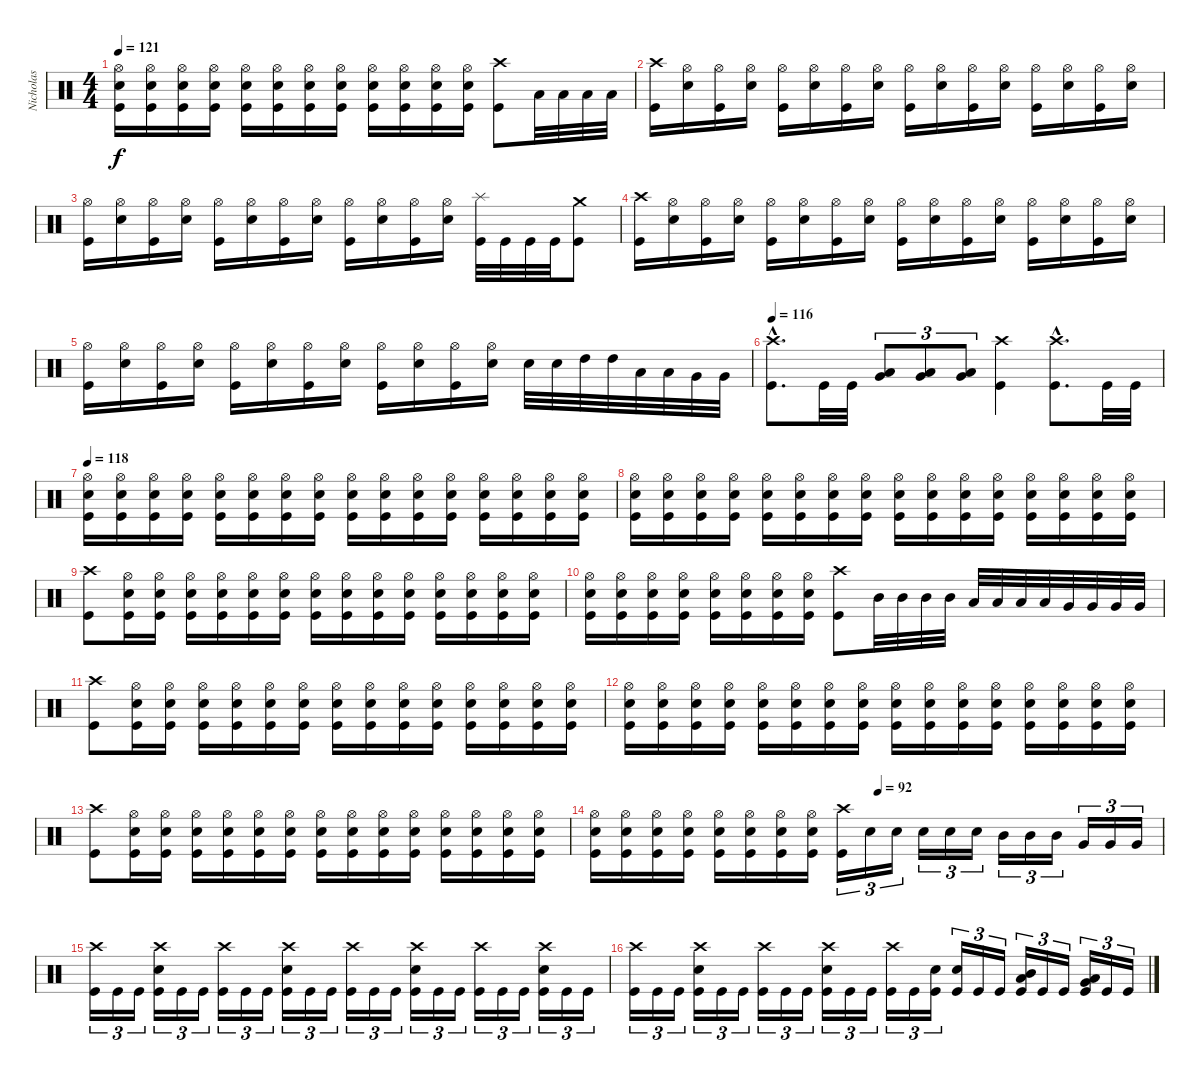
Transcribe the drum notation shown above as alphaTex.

\track ("Nicholas" "Nicholas") {instrument percussion}
\staff {score}
\articulation defaults
\ts (4 4)
\tempo 121
\clef neutral
\ks c
("Hi-Hat (open)" "Electric Snare (hit)" "Kick (hit)").16{dy f} ("Hi-Hat (open)" "Electric Snare (hit)" "Kick (hit)").16 ("Hi-Hat (open)" "Electric Snare (hit)" "Kick (hit)").16 ("Hi-Hat (open)" "Electric Snare (hit)" "Kick (hit)").16 ("Hi-Hat (open)" "Electric Snare (hit)" "Kick (hit)").16 ("Hi-Hat (open)" "Electric Snare (hit)" "Kick (hit)").16 ("Hi-Hat (open)" "Electric Snare (hit)" "Kick (hit)").16 ("Hi-Hat (open)" "Electric Snare (hit)" "Kick (hit)").16 ("Hi-Hat (open)" "Electric Snare (hit)" "Kick (hit)").16 ("Hi-Hat (open)" "Electric Snare (hit)" "Kick (hit)").16 ("Hi-Hat (open)" "Electric Snare (hit)" "Kick (hit)").16 ("Hi-Hat (open)" "Electric Snare (hit)" "Kick (hit)").16 ("Crash high (hit)" "Kick (hit)").8 "Low Tom (hit)".32 "Low Tom (hit)".32 "Low Tom (hit)".32 "Low Tom (hit)".32 |
("Crash high (hit)" "Kick (hit)").16 ("Hi-Hat (open)" "Electric Snare (hit)").16 ("Hi-Hat (open)" "Kick (hit)").16 ("Hi-Hat (open)" "Electric Snare (hit)").16 ("Hi-Hat (open)" "Kick (hit)").16 ("Hi-Hat (open)" "Electric Snare (hit)").16 ("Hi-Hat (open)" "Kick (hit)").16 ("Hi-Hat (open)" "Electric Snare (hit)").16 ("Hi-Hat (open)" "Kick (hit)").16 ("Hi-Hat (open)" "Electric Snare (hit)").16 ("Hi-Hat (open)" "Kick (hit)").16 ("Hi-Hat (open)" "Electric Snare (hit)").16 ("Hi-Hat (open)" "Kick (hit)").16 ("Hi-Hat (open)" "Electric Snare (hit)").16 ("Hi-Hat (open)" "Kick (hit)").16 ("Hi-Hat (open)" "Electric Snare (hit)").16 |
("Hi-Hat (open)" "Kick (hit)").16 ("Hi-Hat (open)" "Electric Snare (hit)").16 ("Hi-Hat (open)" "Kick (hit)").16 ("Hi-Hat (open)" "Electric Snare (hit)").16 ("Hi-Hat (open)" "Kick (hit)").16 ("Hi-Hat (open)" "Electric Snare (hit)").16 ("Hi-Hat (open)" "Kick (hit)").16 ("Hi-Hat (open)" "Electric Snare (hit)").16 ("Hi-Hat (open)" "Kick (hit)").16 ("Hi-Hat (open)" "Electric Snare (hit)").16 ("Hi-Hat (open)" "Kick (hit)").16 ("Hi-Hat (open)" "Electric Snare (hit)").16 ("Splash (hit)" "Kick (hit)").32 "Kick (hit)".32 "Kick (hit)".32 "Kick (hit)".32 ("Crash medium (hit)" "Kick (hit)").8 |
("Crash high (hit)" "Kick (hit)").16 ("Hi-Hat (open)" "Electric Snare (hit)").16 ("Hi-Hat (open)" "Kick (hit)").16 ("Hi-Hat (open)" "Electric Snare (hit)").16 ("Hi-Hat (open)" "Kick (hit)").16 ("Hi-Hat (open)" "Electric Snare (hit)").16 ("Hi-Hat (open)" "Kick (hit)").16 ("Hi-Hat (open)" "Electric Snare (hit)").16 ("Hi-Hat (open)" "Kick (hit)").16 ("Hi-Hat (open)" "Electric Snare (hit)").16 ("Hi-Hat (open)" "Kick (hit)").16 ("Hi-Hat (open)" "Electric Snare (hit)").16 ("Hi-Hat (open)" "Kick (hit)").16 ("Hi-Hat (open)" "Electric Snare (hit)").16 ("Hi-Hat (open)" "Kick (hit)").16 ("Hi-Hat (open)" "Electric Snare (hit)").16 |
("Hi-Hat (open)" "Kick (hit)").16 ("Hi-Hat (open)" "Electric Snare (hit)").16 ("Hi-Hat (open)" "Kick (hit)").16 ("Hi-Hat (open)" "Electric Snare (hit)").16 ("Hi-Hat (open)" "Kick (hit)").16 ("Hi-Hat (open)" "Electric Snare (hit)").16 ("Hi-Hat (open)" "Kick (hit)").16 ("Hi-Hat (open)" "Electric Snare (hit)").16 ("Hi-Hat (open)" "Kick (hit)").16 ("Hi-Hat (open)" "Electric Snare (hit)").16 ("Hi-Hat (open)" "Kick (hit)").16 ("Hi-Hat (open)" "Electric Snare (hit)").16 "Electric Snare (hit)".32 "Electric Snare (hit)".32 "High Tom (hit)".32 "High Tom (hit)".32 "Low Tom (hit)".32 "Low Tom (hit)".32 "Very Low Tom (hit)".32 "Very Low Tom (hit)".32 |
\tempo 116
("Crash high (hit)"{hac} "Kick (hit)"{hac}).8{d} "Kick (hit)".32 "Kick (hit)".32 ("Low Tom (hit)" "Very Low Tom (hit)").8{tu (3 2) bd 60} ("Low Tom (hit)" "Very Low Tom (hit)").8{tu (3 2) bd 60} ("Low Tom (hit)" "Very Low Tom (hit)").8{tu (3 2) bd 60} ("Crash high (hit)" "Kick (hit)").4 ("Crash high (hit)"{hac} "Kick (hit)"{hac}).8{d} "Kick (hit)".32 "Kick (hit)".32 |
\tempo 118
("Hi-Hat (open)" "Electric Snare (hit)" "Kick (hit)").16 ("Hi-Hat (open)" "Electric Snare (hit)" "Kick (hit)").16 ("Hi-Hat (open)" "Electric Snare (hit)" "Kick (hit)").16 ("Hi-Hat (open)" "Electric Snare (hit)" "Kick (hit)").16 ("Hi-Hat (open)" "Electric Snare (hit)" "Kick (hit)").16 ("Hi-Hat (open)" "Electric Snare (hit)" "Kick (hit)").16 ("Hi-Hat (open)" "Electric Snare (hit)" "Kick (hit)").16 ("Hi-Hat (open)" "Electric Snare (hit)" "Kick (hit)").16 ("Hi-Hat (open)" "Electric Snare (hit)" "Kick (hit)").16 ("Hi-Hat (open)" "Electric Snare (hit)" "Kick (hit)").16 ("Hi-Hat (open)" "Electric Snare (hit)" "Kick (hit)").16 ("Hi-Hat (open)" "Electric Snare (hit)" "Kick (hit)").16 ("Hi-Hat (open)" "Electric Snare (hit)" "Kick (hit)").16 ("Hi-Hat (open)" "Electric Snare (hit)" "Kick (hit)").16 ("Hi-Hat (open)" "Electric Snare (hit)" "Kick (hit)").16 ("Hi-Hat (open)" "Electric Snare (hit)" "Kick (hit)").16 |
("Hi-Hat (open)" "Electric Snare (hit)" "Kick (hit)").16 ("Hi-Hat (open)" "Electric Snare (hit)" "Kick (hit)").16 ("Hi-Hat (open)" "Electric Snare (hit)" "Kick (hit)").16 ("Hi-Hat (open)" "Electric Snare (hit)" "Kick (hit)").16 ("Hi-Hat (open)" "Electric Snare (hit)" "Kick (hit)").16 ("Hi-Hat (open)" "Electric Snare (hit)" "Kick (hit)").16 ("Hi-Hat (open)" "Electric Snare (hit)" "Kick (hit)").16 ("Hi-Hat (open)" "Electric Snare (hit)" "Kick (hit)").16 ("Hi-Hat (open)" "Electric Snare (hit)" "Kick (hit)").16 ("Hi-Hat (open)" "Electric Snare (hit)" "Kick (hit)").16 ("Hi-Hat (open)" "Electric Snare (hit)" "Kick (hit)").16 ("Hi-Hat (open)" "Electric Snare (hit)" "Kick (hit)").16 ("Hi-Hat (open)" "Electric Snare (hit)" "Kick (hit)").16 ("Hi-Hat (open)" "Electric Snare (hit)" "Kick (hit)").16 ("Hi-Hat (open)" "Electric Snare (hit)" "Kick (hit)").16 ("Hi-Hat (open)" "Electric Snare (hit)" "Kick (hit)").16 |
("Crash high (hit)" "Kick (hit)").8 ("Hi-Hat (open)" "Electric Snare (hit)" "Kick (hit)").16 ("Hi-Hat (open)" "Electric Snare (hit)" "Kick (hit)").16 ("Hi-Hat (open)" "Electric Snare (hit)" "Kick (hit)").16 ("Hi-Hat (open)" "Electric Snare (hit)" "Kick (hit)").16 ("Hi-Hat (open)" "Electric Snare (hit)" "Kick (hit)").16 ("Hi-Hat (open)" "Electric Snare (hit)" "Kick (hit)").16 ("Hi-Hat (open)" "Electric Snare (hit)" "Kick (hit)").16 ("Hi-Hat (open)" "Electric Snare (hit)" "Kick (hit)").16 ("Hi-Hat (open)" "Electric Snare (hit)" "Kick (hit)").16 ("Hi-Hat (open)" "Electric Snare (hit)" "Kick (hit)").16 ("Hi-Hat (open)" "Electric Snare (hit)" "Kick (hit)").16 ("Hi-Hat (open)" "Electric Snare (hit)" "Kick (hit)").16 ("Hi-Hat (open)" "Electric Snare (hit)" "Kick (hit)").16 ("Hi-Hat (open)" "Electric Snare (hit)" "Kick (hit)").16 |
("Hi-Hat (open)" "Electric Snare (hit)" "Kick (hit)").16 ("Hi-Hat (open)" "Electric Snare (hit)" "Kick (hit)").16 ("Hi-Hat (open)" "Electric Snare (hit)" "Kick (hit)").16 ("Hi-Hat (open)" "Electric Snare (hit)" "Kick (hit)").16 ("Hi-Hat (open)" "Electric Snare (hit)" "Kick (hit)").16 ("Hi-Hat (open)" "Electric Snare (hit)" "Kick (hit)").16 ("Hi-Hat (open)" "Electric Snare (hit)" "Kick (hit)").16 ("Hi-Hat (open)" "Electric Snare (hit)" "Kick (hit)").16 ("Crash high (hit)" "Kick (hit)").8 "Mid Tom (hit)".32 "Mid Tom (hit)".32 "Mid Tom (hit)".32 "Mid Tom (hit)".32 "Low Tom (hit)".32 "Low Tom (hit)".32 "Low Tom (hit)".32 "Low Tom (hit)".32 "Very Low Tom (hit)".32 "Very Low Tom (hit)".32 "Very Low Tom (hit)".32 "Very Low Tom (hit)".32 |
("Crash high (hit)" "Kick (hit)").8 ("Hi-Hat (open)" "Electric Snare (hit)" "Kick (hit)").16 ("Hi-Hat (open)" "Electric Snare (hit)" "Kick (hit)").16 ("Hi-Hat (open)" "Electric Snare (hit)" "Kick (hit)").16 ("Hi-Hat (open)" "Electric Snare (hit)" "Kick (hit)").16 ("Hi-Hat (open)" "Electric Snare (hit)" "Kick (hit)").16 ("Hi-Hat (open)" "Electric Snare (hit)" "Kick (hit)").16 ("Hi-Hat (open)" "Electric Snare (hit)" "Kick (hit)").16 ("Hi-Hat (open)" "Electric Snare (hit)" "Kick (hit)").16 ("Hi-Hat (open)" "Electric Snare (hit)" "Kick (hit)").16 ("Hi-Hat (open)" "Electric Snare (hit)" "Kick (hit)").16 ("Hi-Hat (open)" "Electric Snare (hit)" "Kick (hit)").16 ("Hi-Hat (open)" "Electric Snare (hit)" "Kick (hit)").16 ("Hi-Hat (open)" "Electric Snare (hit)" "Kick (hit)").16 ("Hi-Hat (open)" "Electric Snare (hit)" "Kick (hit)").16 |
("Hi-Hat (open)" "Electric Snare (hit)" "Kick (hit)").16 ("Hi-Hat (open)" "Electric Snare (hit)" "Kick (hit)").16 ("Hi-Hat (open)" "Electric Snare (hit)" "Kick (hit)").16 ("Hi-Hat (open)" "Electric Snare (hit)" "Kick (hit)").16 ("Hi-Hat (open)" "Electric Snare (hit)" "Kick (hit)").16 ("Hi-Hat (open)" "Electric Snare (hit)" "Kick (hit)").16 ("Hi-Hat (open)" "Electric Snare (hit)" "Kick (hit)").16 ("Hi-Hat (open)" "Electric Snare (hit)" "Kick (hit)").16 ("Hi-Hat (open)" "Electric Snare (hit)" "Kick (hit)").16 ("Hi-Hat (open)" "Electric Snare (hit)" "Kick (hit)").16 ("Hi-Hat (open)" "Electric Snare (hit)" "Kick (hit)").16 ("Hi-Hat (open)" "Electric Snare (hit)" "Kick (hit)").16 ("Hi-Hat (open)" "Electric Snare (hit)" "Kick (hit)").16 ("Hi-Hat (open)" "Electric Snare (hit)" "Kick (hit)").16 ("Hi-Hat (open)" "Electric Snare (hit)" "Kick (hit)").16 ("Hi-Hat (open)" "Electric Snare (hit)" "Kick (hit)").16 |
("Crash high (hit)" "Kick (hit)").8 ("Hi-Hat (open)" "Electric Snare (hit)" "Kick (hit)").16 ("Hi-Hat (open)" "Electric Snare (hit)" "Kick (hit)").16 ("Hi-Hat (open)" "Electric Snare (hit)" "Kick (hit)").16 ("Hi-Hat (open)" "Electric Snare (hit)" "Kick (hit)").16 ("Hi-Hat (open)" "Electric Snare (hit)" "Kick (hit)").16 ("Hi-Hat (open)" "Electric Snare (hit)" "Kick (hit)").16 ("Hi-Hat (open)" "Electric Snare (hit)" "Kick (hit)").16 ("Hi-Hat (open)" "Electric Snare (hit)" "Kick (hit)").16 ("Hi-Hat (open)" "Electric Snare (hit)" "Kick (hit)").16 ("Hi-Hat (open)" "Electric Snare (hit)" "Kick (hit)").16 ("Hi-Hat (open)" "Electric Snare (hit)" "Kick (hit)").16 ("Hi-Hat (open)" "Electric Snare (hit)" "Kick (hit)").16 ("Hi-Hat (open)" "Electric Snare (hit)" "Kick (hit)").16 ("Hi-Hat (open)" "Electric Snare (hit)" "Kick (hit)").16 |
\tempo (92 0.5)
("Hi-Hat (open)" "Electric Snare (hit)" "Kick (hit)").16 ("Hi-Hat (open)" "Electric Snare (hit)" "Kick (hit)").16 ("Hi-Hat (open)" "Electric Snare (hit)" "Kick (hit)").16 ("Hi-Hat (open)" "Electric Snare (hit)" "Kick (hit)").16 ("Hi-Hat (open)" "Electric Snare (hit)" "Kick (hit)").16 ("Hi-Hat (open)" "Electric Snare (hit)" "Kick (hit)").16 ("Hi-Hat (open)" "Electric Snare (hit)" "Kick (hit)").16 ("Hi-Hat (open)" "Electric Snare (hit)" "Kick (hit)").16 ("Crash high (hit)" "Kick (hit)").16{tu (3 2)} "Electric Snare (hit)".16{tu (3 2)} "Electric Snare (hit)".16{tu (3 2)} "Electric Snare (hit)".16{tu (3 2)} "Electric Snare (hit)".16{tu (3 2)} "Electric Snare (hit)".16{tu (3 2)} "Mid Tom (hit)".16{tu (3 2)} "Mid Tom (hit)".16{tu (3 2)} "Mid Tom (hit)".16{tu (3 2)} "Very Low Tom (hit)".16{tu (3 2)} "Very Low Tom (hit)".16{tu (3 2)} "Very Low Tom (hit)".16{tu (3 2)} |
("Crash high (hit)" "Kick (hit)").16{tu (3 2)} "Kick (hit)".16{tu (3 2)} "Kick (hit)".16{tu (3 2)} ("Crash high (hit)" "Electric Snare (hit)" "Kick (hit)").16{tu (3 2)} "Kick (hit)".16{tu (3 2)} "Kick (hit)".16{tu (3 2)} ("Crash high (hit)" "Kick (hit)").16{tu (3 2)} "Kick (hit)".16{tu (3 2)} "Kick (hit)".16{tu (3 2)} ("Crash high (hit)" "Electric Snare (hit)" "Kick (hit)").16{tu (3 2)} "Kick (hit)".16{tu (3 2)} "Kick (hit)".16{tu (3 2)} ("Crash high (hit)" "Kick (hit)").16{tu (3 2)} "Kick (hit)".16{tu (3 2)} "Kick (hit)".16{tu (3 2)} ("Crash high (hit)" "Electric Snare (hit)" "Kick (hit)").16{tu (3 2)} "Kick (hit)".16{tu (3 2)} "Kick (hit)".16{tu (3 2)} ("Crash high (hit)" "Kick (hit)").16{tu (3 2)} "Kick (hit)".16{tu (3 2)} "Kick (hit)".16{tu (3 2)} ("Crash high (hit)" "Electric Snare (hit)" "Kick (hit)").16{tu (3 2)} "Kick (hit)".16{tu (3 2)} "Kick (hit)".16{tu (3 2)} |
("Crash high (hit)" "Kick (hit)").16{tu (3 2)} "Kick (hit)".16{tu (3 2)} "Kick (hit)".16{tu (3 2)} ("Crash high (hit)" "Electric Snare (hit)" "Kick (hit)").16{tu (3 2)} "Kick (hit)".16{tu (3 2)} "Kick (hit)".16{tu (3 2)} ("Crash high (hit)" "Kick (hit)").16{tu (3 2)} "Kick (hit)".16{tu (3 2)} "Kick (hit)".16{tu (3 2)} ("Crash high (hit)" "Electric Snare (hit)" "Kick (hit)").16{tu (3 2)} "Kick (hit)".16{tu (3 2)} "Kick (hit)".16{tu (3 2)} ("Crash high (hit)" "Kick (hit)").16{tu (3 2)} "Kick (hit)".16{tu (3 2)} ("Electric Snare (hit)" "Kick (hit)").16{tu (3 2)} ("Electric Snare (hit)" "Kick (hit)").16{tu (3 2)} "Kick (hit)".16{tu (3 2)} "Kick (hit)".16{tu (3 2)} ("Mid Tom (hit)" "Low Tom (hit)" "Kick (hit)").16{tu (3 2) bd 60} "Kick (hit)".16{tu (3 2)} "Kick (hit)".16{tu (3 2)} ("Low Tom (hit)" "Very Low Tom (hit)" "Kick (hit)").16{tu (3 2) bd 60} "Kick (hit)".16{tu (3 2)} "Kick (hit)".16{tu (3 2)}
